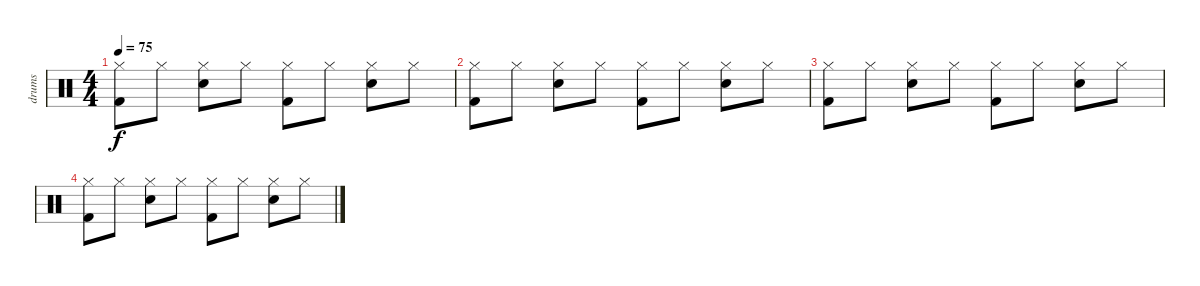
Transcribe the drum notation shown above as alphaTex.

\track ("drums" "drums") {instrument percussion}
\staff {score}
\articulation defaults
\ts (4 4)
\tempo 75
\clef neutral
\ks c
("Hi-Hat (closed)" "Kick (hit) 2").8{dy f} "Hi-Hat (closed)".8 ("Hi-Hat (closed)" "Electric Snare (hit)").8 "Hi-Hat (closed)".8 ("Hi-Hat (closed)" "Kick (hit) 2").8 "Hi-Hat (closed)".8 ("Hi-Hat (closed)" "Electric Snare (hit)").8 "Hi-Hat (closed)".8 |
("Hi-Hat (closed)" "Kick (hit) 2").8 "Hi-Hat (closed)".8 ("Hi-Hat (closed)" "Electric Snare (hit)").8 "Hi-Hat (closed)".8 ("Hi-Hat (closed)" "Kick (hit) 2").8 "Hi-Hat (closed)".8 ("Hi-Hat (closed)" "Electric Snare (hit)").8 "Hi-Hat (closed)".8 |
("Hi-Hat (closed)" "Kick (hit) 2").8 "Hi-Hat (closed)".8 ("Hi-Hat (closed)" "Electric Snare (hit)").8 "Hi-Hat (closed)".8 ("Hi-Hat (closed)" "Kick (hit) 2").8 "Hi-Hat (closed)".8 ("Hi-Hat (closed)" "Electric Snare (hit)").8 "Hi-Hat (closed)".8 |
("Hi-Hat (closed)" "Kick (hit) 2").8 "Hi-Hat (closed)".8 ("Hi-Hat (closed)" "Electric Snare (hit)").8 "Hi-Hat (closed)".8 ("Hi-Hat (closed)" "Kick (hit) 2").8 "Hi-Hat (closed)".8 ("Hi-Hat (closed)" "Electric Snare (hit)").8 "Hi-Hat (closed)".8
